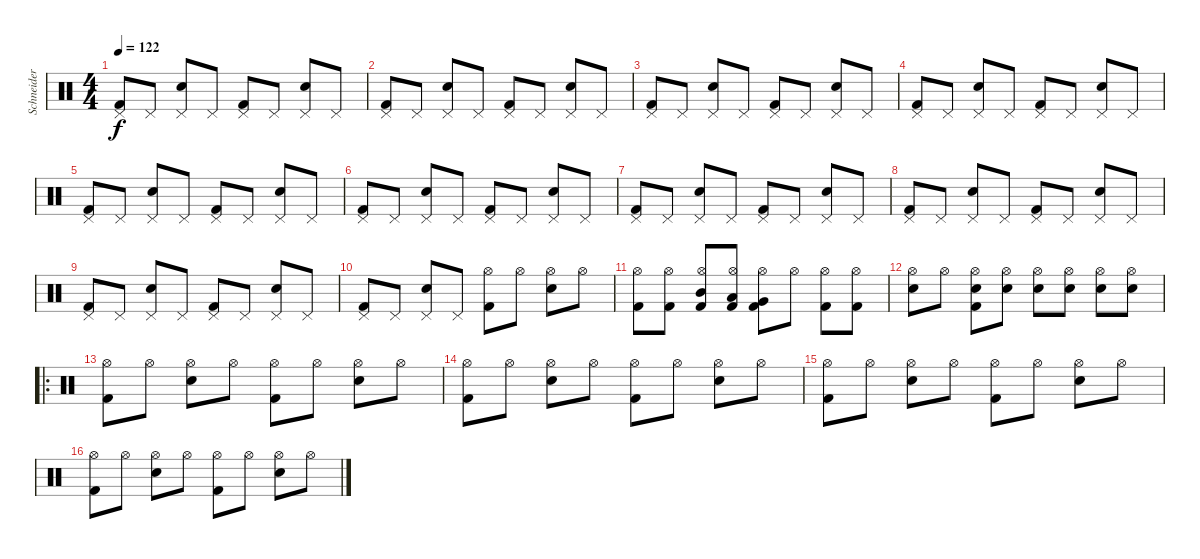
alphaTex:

\track ("Schneider" "Schneider") {instrument percussion}
\staff {score}
\articulation defaults
\ts (4 4)
\tempo 122
\clef neutral
\ks c
("Pedal Hi-Hat (hit)" "Kick (hit) 2").8{dy f} "Pedal Hi-Hat (hit)".8 ("Pedal Hi-Hat (hit)" "Snare (hit) 2").8 "Pedal Hi-Hat (hit)".8 ("Pedal Hi-Hat (hit)" "Kick (hit) 2").8 "Pedal Hi-Hat (hit)".8 ("Pedal Hi-Hat (hit)" "Snare (hit) 2").8 "Pedal Hi-Hat (hit)".8 |
("Pedal Hi-Hat (hit)" "Kick (hit) 2").8 "Pedal Hi-Hat (hit)".8 ("Pedal Hi-Hat (hit)" "Snare (hit) 2").8 "Pedal Hi-Hat (hit)".8 ("Pedal Hi-Hat (hit)" "Kick (hit) 2").8 "Pedal Hi-Hat (hit)".8 ("Pedal Hi-Hat (hit)" "Snare (hit) 2").8 "Pedal Hi-Hat (hit)".8 |
("Pedal Hi-Hat (hit)" "Kick (hit) 2").8 "Pedal Hi-Hat (hit)".8 ("Pedal Hi-Hat (hit)" "Snare (hit) 2").8 "Pedal Hi-Hat (hit)".8 ("Pedal Hi-Hat (hit)" "Kick (hit) 2").8 "Pedal Hi-Hat (hit)".8 ("Pedal Hi-Hat (hit)" "Snare (hit) 2").8 "Pedal Hi-Hat (hit)".8 |
("Pedal Hi-Hat (hit)" "Kick (hit) 2").8 "Pedal Hi-Hat (hit)".8 ("Pedal Hi-Hat (hit)" "Snare (hit) 2").8 "Pedal Hi-Hat (hit)".8 ("Pedal Hi-Hat (hit)" "Kick (hit) 2").8 "Pedal Hi-Hat (hit)".8 ("Pedal Hi-Hat (hit)" "Snare (hit) 2").8 "Pedal Hi-Hat (hit)".8 |
("Pedal Hi-Hat (hit)" "Kick (hit) 2").8 "Pedal Hi-Hat (hit)".8 ("Pedal Hi-Hat (hit)" "Snare (hit) 2").8 "Pedal Hi-Hat (hit)".8 ("Pedal Hi-Hat (hit)" "Kick (hit) 2").8 "Pedal Hi-Hat (hit)".8 ("Pedal Hi-Hat (hit)" "Snare (hit) 2").8 "Pedal Hi-Hat (hit)".8 |
("Pedal Hi-Hat (hit)" "Kick (hit) 2").8 "Pedal Hi-Hat (hit)".8 ("Pedal Hi-Hat (hit)" "Snare (hit) 2").8 "Pedal Hi-Hat (hit)".8 ("Pedal Hi-Hat (hit)" "Kick (hit) 2").8 "Pedal Hi-Hat (hit)".8 ("Pedal Hi-Hat (hit)" "Snare (hit) 2").8 "Pedal Hi-Hat (hit)".8 |
("Pedal Hi-Hat (hit)" "Kick (hit) 2").8 "Pedal Hi-Hat (hit)".8 ("Pedal Hi-Hat (hit)" "Snare (hit) 2").8 "Pedal Hi-Hat (hit)".8 ("Pedal Hi-Hat (hit)" "Kick (hit) 2").8 "Pedal Hi-Hat (hit)".8 ("Pedal Hi-Hat (hit)" "Snare (hit) 2").8 "Pedal Hi-Hat (hit)".8 |
("Pedal Hi-Hat (hit)" "Kick (hit) 2").8 "Pedal Hi-Hat (hit)".8 ("Pedal Hi-Hat (hit)" "Snare (hit) 2").8 "Pedal Hi-Hat (hit)".8 ("Pedal Hi-Hat (hit)" "Kick (hit) 2").8 "Pedal Hi-Hat (hit)".8 ("Pedal Hi-Hat (hit)" "Snare (hit) 2").8 "Pedal Hi-Hat (hit)".8 |
("Pedal Hi-Hat (hit)" "Kick (hit) 2").8 "Pedal Hi-Hat (hit)".8 ("Pedal Hi-Hat (hit)" "Snare (hit) 2").8 "Pedal Hi-Hat (hit)".8 ("Pedal Hi-Hat (hit)" "Kick (hit) 2").8 "Pedal Hi-Hat (hit)".8 ("Pedal Hi-Hat (hit)" "Snare (hit) 2").8 "Pedal Hi-Hat (hit)".8 |
("Pedal Hi-Hat (hit)" "Kick (hit) 2").8 "Pedal Hi-Hat (hit)".8 ("Pedal Hi-Hat (hit)" "Snare (hit) 2").8 "Pedal Hi-Hat (hit)".8 ("Hi-Hat (open)" "Kick (hit) 2").8 "Hi-Hat (open)".8 ("Hi-Hat (open)" "Snare (hit) 2").8 "Hi-Hat (open)".8 |
("Hi-Hat (open)" "Kick (hit) 2").8 ("Hi-Hat (open)" "Kick (hit) 2").8 ("Hi-Hat (open)" "Mid Tom (hit)" "Kick (hit) 2").8 ("Hi-Hat (open)" "Low Tom (hit)" "Kick (hit) 2").8 ("Hi-Hat (open)" "Very Low Tom (hit)" "Kick (hit) 2").8 "Hi-Hat (open)".8 ("Hi-Hat (open)" "Kick (hit) 2").8 ("Hi-Hat (open)" "Kick (hit) 2").8 |
("Hi-Hat (open)" "Snare (hit) 2").8 "Hi-Hat (open)".8 ("Hi-Hat (open)" "Snare (hit) 2" "Kick (hit) 2").8 ("Hi-Hat (open)" "Snare (hit) 2").8 ("Hi-Hat (open)" "Snare (hit) 2").8 ("Hi-Hat (open)" "Snare (hit) 2").8 ("Hi-Hat (open)" "Snare (hit) 2").8 ("Hi-Hat (open)" "Snare (hit) 2").8 |
\ro
("Hi-Hat (open)" "Kick (hit) 2").8 "Hi-Hat (open)".8 ("Hi-Hat (open)" "Snare (hit) 2").8 "Hi-Hat (open)".8 ("Hi-Hat (open)" "Kick (hit) 2").8 "Hi-Hat (open)".8 ("Hi-Hat (open)" "Snare (hit) 2").8 "Hi-Hat (open)".8 |
("Hi-Hat (open)" "Kick (hit) 2").8 "Hi-Hat (open)".8 ("Hi-Hat (open)" "Snare (hit) 2").8 "Hi-Hat (open)".8 ("Hi-Hat (open)" "Kick (hit) 2").8 "Hi-Hat (open)".8 ("Hi-Hat (open)" "Snare (hit) 2").8 "Hi-Hat (open)".8 |
("Hi-Hat (open)" "Kick (hit) 2").8 "Hi-Hat (open)".8 ("Hi-Hat (open)" "Snare (hit) 2").8 "Hi-Hat (open)".8 ("Hi-Hat (open)" "Kick (hit) 2").8 "Hi-Hat (open)".8 ("Hi-Hat (open)" "Snare (hit) 2").8 "Hi-Hat (open)".8 |
("Hi-Hat (open)" "Kick (hit) 2").8 "Hi-Hat (open)".8 ("Hi-Hat (open)" "Snare (hit) 2").8 "Hi-Hat (open)".8 ("Hi-Hat (open)" "Kick (hit) 2").8 "Hi-Hat (open)".8 ("Hi-Hat (open)" "Snare (hit) 2").8 "Hi-Hat (open)".8
